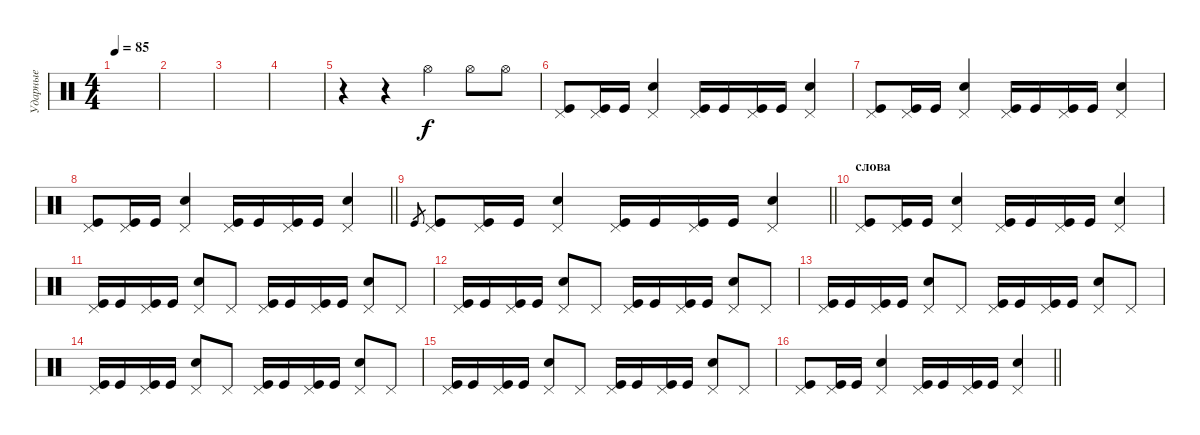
\track ("Ударные" "Ударные") {instrument percussion}
\staff {score}
\articulation defaults
\ts (4 4)
\tempo 85
\clef neutral
\ks c
|
|
|
|
r.4 r.4 "Hi-Hat (open)".4 "Hi-Hat (open)".8 "Hi-Hat (open)".8 |
("Pedal Hi-Hat (hit)" "Kick (hit)").8 ("Pedal Hi-Hat (hit)" "Kick (hit)").16 "Kick (hit)".16 ("Pedal Hi-Hat (hit)" "Electric Snare (hit)").4 ("Pedal Hi-Hat (hit)" "Kick (hit)").16 "Kick (hit)".16 ("Pedal Hi-Hat (hit)" "Kick (hit)").16 "Kick (hit)".16 ("Pedal Hi-Hat (hit)" "Electric Snare (hit)").4 |
("Pedal Hi-Hat (hit)" "Kick (hit)").8 ("Pedal Hi-Hat (hit)" "Kick (hit)").16 "Kick (hit)".16 ("Pedal Hi-Hat (hit)" "Electric Snare (hit)").4 ("Pedal Hi-Hat (hit)" "Kick (hit)").16 "Kick (hit)".16 ("Pedal Hi-Hat (hit)" "Kick (hit)").16 "Kick (hit)".16 ("Pedal Hi-Hat (hit)" "Electric Snare (hit)").4 |
\barLineRight lightlight
("Pedal Hi-Hat (hit)" "Kick (hit)").8 ("Pedal Hi-Hat (hit)" "Kick (hit)").16 "Kick (hit)".16 ("Pedal Hi-Hat (hit)" "Electric Snare (hit)").4 ("Pedal Hi-Hat (hit)" "Kick (hit)").16 "Kick (hit)".16 ("Pedal Hi-Hat (hit)" "Kick (hit)").16 "Kick (hit)".16 ("Pedal Hi-Hat (hit)" "Electric Snare (hit)").4 |
\section ("" "")
\barLineRight lightlight "Kick (hit)".8{gr}
("Pedal Hi-Hat (hit)" "Kick (hit)").8 ("Pedal Hi-Hat (hit)" "Kick (hit)").16 "Kick (hit)".16 ("Pedal Hi-Hat (hit)" "Electric Snare (hit)").4 ("Pedal Hi-Hat (hit)" "Kick (hit)").16 "Kick (hit)".16 ("Pedal Hi-Hat (hit)" "Kick (hit)").16 "Kick (hit)".16 ("Pedal Hi-Hat (hit)" "Electric Snare (hit)").4 |
\section ("" "слова")
("Pedal Hi-Hat (hit)" "Kick (hit)").8 ("Pedal Hi-Hat (hit)" "Kick (hit)").16 "Kick (hit)".16 ("Pedal Hi-Hat (hit)" "Electric Snare (hit)").4 ("Pedal Hi-Hat (hit)" "Kick (hit)").16 "Kick (hit)".16 ("Pedal Hi-Hat (hit)" "Kick (hit)").16 "Kick (hit)".16 ("Pedal Hi-Hat (hit)" "Electric Snare (hit)").4 |
("Pedal Hi-Hat (hit)" "Kick (hit)").16 "Kick (hit)".16 ("Pedal Hi-Hat (hit)" "Kick (hit)").16 "Kick (hit)".16 ("Pedal Hi-Hat (hit)" "Electric Snare (hit)").8 "Pedal Hi-Hat (hit)".8 ("Pedal Hi-Hat (hit)" "Kick (hit)").16 "Kick (hit)".16 ("Pedal Hi-Hat (hit)" "Kick (hit)").16 "Kick (hit)".16 ("Pedal Hi-Hat (hit)" "Electric Snare (hit)").8 "Pedal Hi-Hat (hit)".8 |
("Pedal Hi-Hat (hit)" "Kick (hit)").16 "Kick (hit)".16 ("Pedal Hi-Hat (hit)" "Kick (hit)").16 "Kick (hit)".16 ("Pedal Hi-Hat (hit)" "Electric Snare (hit)").8 "Pedal Hi-Hat (hit)".8 ("Pedal Hi-Hat (hit)" "Kick (hit)").16 "Kick (hit)".16 ("Pedal Hi-Hat (hit)" "Kick (hit)").16 "Kick (hit)".16 ("Pedal Hi-Hat (hit)" "Electric Snare (hit)").8 "Pedal Hi-Hat (hit)".8 |
("Pedal Hi-Hat (hit)" "Kick (hit)").16 "Kick (hit)".16 ("Pedal Hi-Hat (hit)" "Kick (hit)").16 "Kick (hit)".16 ("Pedal Hi-Hat (hit)" "Electric Snare (hit)").8 "Pedal Hi-Hat (hit)".8 ("Pedal Hi-Hat (hit)" "Kick (hit)").16 "Kick (hit)".16 ("Pedal Hi-Hat (hit)" "Kick (hit)").16 "Kick (hit)".16 ("Pedal Hi-Hat (hit)" "Electric Snare (hit)").8 "Pedal Hi-Hat (hit)".8 |
("Pedal Hi-Hat (hit)" "Kick (hit)").16 "Kick (hit)".16 ("Pedal Hi-Hat (hit)" "Kick (hit)").16 "Kick (hit)".16 ("Pedal Hi-Hat (hit)" "Electric Snare (hit)").8 "Pedal Hi-Hat (hit)".8 ("Pedal Hi-Hat (hit)" "Kick (hit)").16 "Kick (hit)".16 ("Pedal Hi-Hat (hit)" "Kick (hit)").16 "Kick (hit)".16 ("Pedal Hi-Hat (hit)" "Electric Snare (hit)").8 "Pedal Hi-Hat (hit)".8 |
("Pedal Hi-Hat (hit)" "Kick (hit)").16 "Kick (hit)".16 ("Pedal Hi-Hat (hit)" "Kick (hit)").16 "Kick (hit)".16 ("Pedal Hi-Hat (hit)" "Electric Snare (hit)").8 "Pedal Hi-Hat (hit)".8 ("Pedal Hi-Hat (hit)" "Kick (hit)").16 "Kick (hit)".16 ("Pedal Hi-Hat (hit)" "Kick (hit)").16 "Kick (hit)".16 ("Pedal Hi-Hat (hit)" "Electric Snare (hit)").8 "Pedal Hi-Hat (hit)".8 |
\barLineRight lightlight
("Pedal Hi-Hat (hit)" "Kick (hit)").8 ("Pedal Hi-Hat (hit)" "Kick (hit)").16 "Kick (hit)".16 ("Pedal Hi-Hat (hit)" "Electric Snare (hit)").4 ("Pedal Hi-Hat (hit)" "Kick (hit)").16 "Kick (hit)".16 ("Pedal Hi-Hat (hit)" "Kick (hit)").16 "Kick (hit)".16 ("Pedal Hi-Hat (hit)" "Electric Snare (hit)").4
